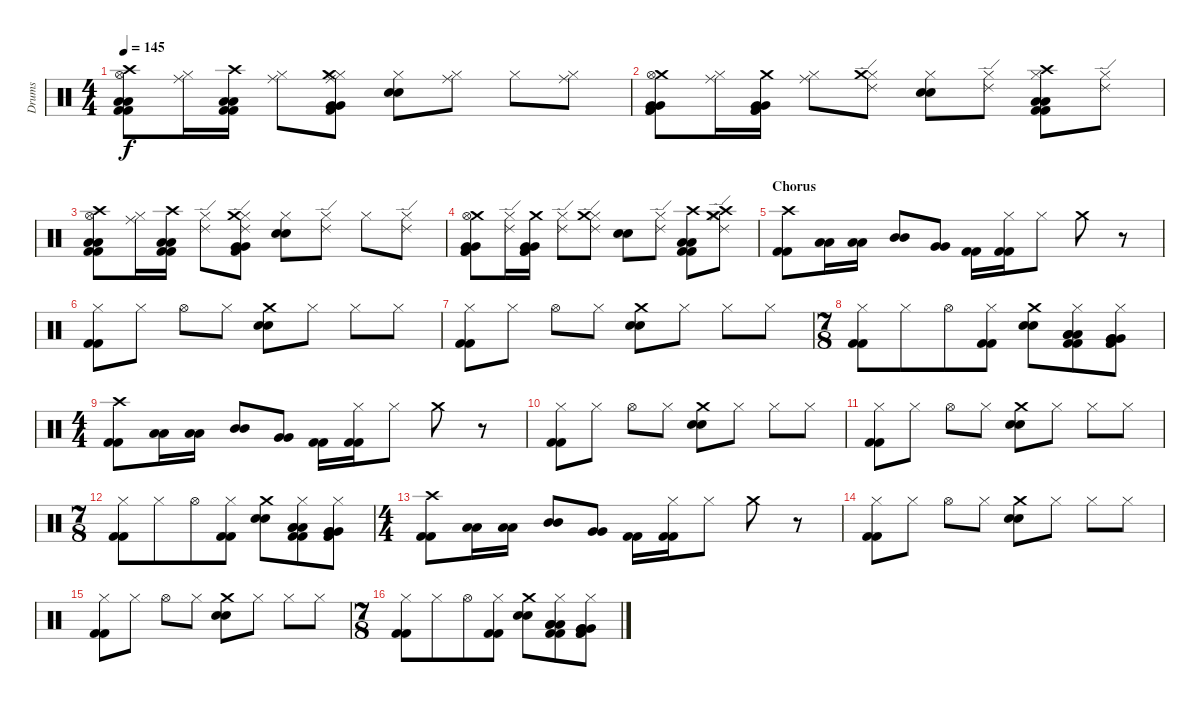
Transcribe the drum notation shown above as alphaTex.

\track ("Drums" "Drums") {instrument percussion}
\staff {score}
\articulation defaults
\ts (4 4)
\tempo 145
\clef neutral
\ks c
("Crash high (hit)" "Hi-Hat (open)" "Kick (hit) 2" "Low Tom (hit)" "Low Tom (hit)" "Kick (hit) 2").8{dy f} ("Ride (middle)" "Hi-Hat (closed)").16 ("Crash high (hit)" "Kick (hit) 2" "Low Tom (hit)" "Low Tom (hit)" "Kick (hit) 2").16 ("Ride (middle)" "Hi-Hat (closed)").8 ("Ride (middle)" "Hi-Hat (closed)" "Crash medium (hit)" "Very Low Tom (hit)" "Very Low Tom (hit)" "Kick (hit) 2").8 ("Hi-Hat (closed)" "Snare (hit) 2" "Snare (hit) 2").8 ("Ride (middle)" "Hi-Hat (closed)").8 "Hi-Hat (closed)".8 ("Ride (middle)" "Hi-Hat (closed)").8 |
("Crash medium (hit)" "Hi-Hat (open)" "Kick (hit) 2" "Very Low Tom (hit)" "Very Low Tom (hit)" "Kick (hit) 2").8 ("Ride (middle)" "Hi-Hat (closed)").16 ("Crash medium (hit)" "Kick (hit) 2" "Very Low Tom (hit)" "Very Low Tom (hit)" "Kick (hit) 2").16 ("Ride (middle)" "Hi-Hat (closed)").8 ("Ride (edge) 2" "Hi-Hat (closed)" "Crash medium (hit)").8 ("Hi-Hat (closed)" "Snare (hit) 2" "Snare (hit) 2").8 ("Ride (edge) 2" "Hi-Hat (closed)").8 ("Crash high (hit)" "Hi-Hat (closed)" "Kick (hit) 2" "Low Tom (hit)" "Low Tom (hit)" "Kick (hit) 2").8 ("Ride (edge) 2" "Hi-Hat (closed)").8 |
("Crash high (hit)" "Hi-Hat (open)" "Kick (hit) 2" "Low Tom (hit)" "Low Tom (hit)" "Kick (hit) 2").8 ("Ride (middle)" "Hi-Hat (closed)").16 ("Crash high (hit)" "Kick (hit) 2" "Low Tom (hit)" "Low Tom (hit)" "Kick (hit) 2").16 ("Ride (edge) 2" "Hi-Hat (closed)").8 ("Ride (edge) 2" "Hi-Hat (closed)" "Crash medium (hit)" "Very Low Tom (hit)" "Very Low Tom (hit)" "Kick (hit) 2").8 ("Hi-Hat (closed)" "Snare (hit) 2" "Snare (hit) 2").8 ("Ride (edge) 2" "Hi-Hat (closed)").8 "Hi-Hat (closed)".8 ("Ride (edge) 2" "Hi-Hat (closed)").8 |
("Crash medium (hit)" "Hi-Hat (open)" "Kick (hit) 2" "Very Low Tom (hit)" "Very Low Tom (hit)" "Kick (hit) 2").8 ("Ride (edge) 2" "Hi-Hat (closed)").16 ("Crash medium (hit)" "Kick (hit) 2" "Very Low Tom (hit)" "Very Low Tom (hit)" "Kick (hit) 2").16 ("Ride (edge) 2" "Hi-Hat (closed)").8 ("Ride (edge) 2" "Hi-Hat (closed)" "Crash medium (hit)").8 ("Snare (hit) 2" "Snare (hit) 2").8 ("Ride (edge) 2" "Hi-Hat (closed)").8 ("Crash high (hit)" "Kick (hit) 2" "Low Tom (hit)" "Low Tom (hit)" "Kick (hit) 2").8 ("Ride (edge) 2" "Hi-Hat (closed)" "Crash medium (hit)" "Crash high (hit)").8 |
\section ("" "Chorus")
("Crash high (hit)" "Kick (hit) 2" "Kick (hit) 2").8 ("Low Tom (hit)" "Low Tom (hit)").16 ("Low Tom (hit)" "Low Tom (hit)").16 ("Mid Tom (hit)" "Mid Tom (hit)").8 ("Very Low Tom (hit)" "Very Low Tom (hit)").8 ("Kick (hit) 2" "Kick (hit) 2").16 ("Hi-Hat (closed)" "Kick (hit) 2" "Kick (hit) 2").16 "Hi-Hat (closed)".8 "Crash medium (hit)".8 r.8 |
("Hi-Hat (closed)" "Kick (hit) 2" "Kick (hit) 2").8 "Hi-Hat (closed)".8 "Hi-Hat (open)".8 "Hi-Hat (closed)".8 ("Crash medium (hit)" "Snare (hit) 2" "Snare (hit) 2").8 "Hi-Hat (closed)".8 "Hi-Hat (closed)".8 "Hi-Hat (closed)".8 |
("Hi-Hat (closed)" "Kick (hit) 2" "Kick (hit) 2").8 "Hi-Hat (closed)".8 "Hi-Hat (open)".8 "Hi-Hat (closed)".8 ("Crash medium (hit)" "Snare (hit) 2" "Snare (hit) 2").8 "Hi-Hat (closed)".8 "Hi-Hat (closed)".8 "Hi-Hat (closed)".8 |
\ts (7 8)
("Hi-Hat (closed)" "Kick (hit) 2" "Kick (hit) 2").8 "Hi-Hat (closed)".8 "Hi-Hat (open)".8 ("Hi-Hat (closed)" "Kick (hit) 2" "Kick (hit) 2").8 ("Crash medium (hit)" "Snare (hit) 2" "Snare (hit) 2").8 ("Kick (hit) 2" "Kick (hit) 2" "Hi-Hat (closed)" "Low Tom (hit)" "Low Tom (hit)" "Low Tom (hit)").8 ("Kick (hit) 2" "Kick (hit) 2" "Hi-Hat (closed)" "Very Low Tom (hit)" "Very Low Tom (hit)" "Very Low Tom (hit)").8 |
\ts (4 4)
("Crash high (hit)" "Kick (hit) 2" "Kick (hit) 2").8 ("Low Tom (hit)" "Low Tom (hit)").16 ("Low Tom (hit)" "Low Tom (hit)").16 ("Mid Tom (hit)" "Mid Tom (hit)").8 ("Very Low Tom (hit)" "Very Low Tom (hit)").8 ("Kick (hit) 2" "Kick (hit) 2").16 ("Hi-Hat (closed)" "Kick (hit) 2" "Kick (hit) 2").16 "Hi-Hat (closed)".8 "Crash medium (hit)".8 r.8 |
("Hi-Hat (closed)" "Kick (hit) 2" "Kick (hit) 2").8 "Hi-Hat (closed)".8 "Hi-Hat (open)".8 "Hi-Hat (closed)".8 ("Crash medium (hit)" "Snare (hit) 2" "Snare (hit) 2").8 "Hi-Hat (closed)".8 "Hi-Hat (closed)".8 "Hi-Hat (closed)".8 |
("Hi-Hat (closed)" "Kick (hit) 2" "Kick (hit) 2").8 "Hi-Hat (closed)".8 "Hi-Hat (open)".8 "Hi-Hat (closed)".8 ("Crash medium (hit)" "Snare (hit) 2" "Snare (hit) 2").8 "Hi-Hat (closed)".8 "Hi-Hat (closed)".8 "Hi-Hat (closed)".8 |
\ts (7 8)
("Hi-Hat (closed)" "Kick (hit) 2" "Kick (hit) 2").8 "Hi-Hat (closed)".8 "Hi-Hat (open)".8 ("Hi-Hat (closed)" "Kick (hit) 2" "Kick (hit) 2").8 ("Crash medium (hit)" "Snare (hit) 2" "Snare (hit) 2").8 ("Kick (hit) 2" "Kick (hit) 2" "Hi-Hat (closed)" "Low Tom (hit)" "Low Tom (hit)" "Low Tom (hit)").8 ("Kick (hit) 2" "Kick (hit) 2" "Hi-Hat (closed)" "Very Low Tom (hit)" "Very Low Tom (hit)" "Very Low Tom (hit)").8 |
\ts (4 4)
("Crash high (hit)" "Kick (hit) 2" "Kick (hit) 2").8 ("Low Tom (hit)" "Low Tom (hit)").16 ("Low Tom (hit)" "Low Tom (hit)").16 ("Mid Tom (hit)" "Mid Tom (hit)").8 ("Very Low Tom (hit)" "Very Low Tom (hit)").8 ("Kick (hit) 2" "Kick (hit) 2").16 ("Hi-Hat (closed)" "Kick (hit) 2" "Kick (hit) 2").16 "Hi-Hat (closed)".8 "Crash medium (hit)".8 r.8 |
("Hi-Hat (closed)" "Kick (hit) 2" "Kick (hit) 2").8 "Hi-Hat (closed)".8 "Hi-Hat (open)".8 "Hi-Hat (closed)".8 ("Crash medium (hit)" "Snare (hit) 2" "Snare (hit) 2").8 "Hi-Hat (closed)".8 "Hi-Hat (closed)".8 "Hi-Hat (closed)".8 |
("Hi-Hat (closed)" "Kick (hit) 2" "Kick (hit) 2").8 "Hi-Hat (closed)".8 "Hi-Hat (open)".8 "Hi-Hat (closed)".8 ("Crash medium (hit)" "Snare (hit) 2" "Snare (hit) 2").8 "Hi-Hat (closed)".8 "Hi-Hat (closed)".8 "Hi-Hat (closed)".8 |
\ts (7 8)
("Hi-Hat (closed)" "Kick (hit) 2" "Kick (hit) 2").8 "Hi-Hat (closed)".8 "Hi-Hat (open)".8 ("Hi-Hat (closed)" "Kick (hit) 2" "Kick (hit) 2").8 ("Crash medium (hit)" "Snare (hit) 2" "Snare (hit) 2").8 ("Kick (hit) 2" "Kick (hit) 2" "Hi-Hat (closed)" "Low Tom (hit)" "Low Tom (hit)" "Low Tom (hit)").8 ("Kick (hit) 2" "Kick (hit) 2" "Hi-Hat (closed)" "Very Low Tom (hit)" "Very Low Tom (hit)" "Very Low Tom (hit)").8
